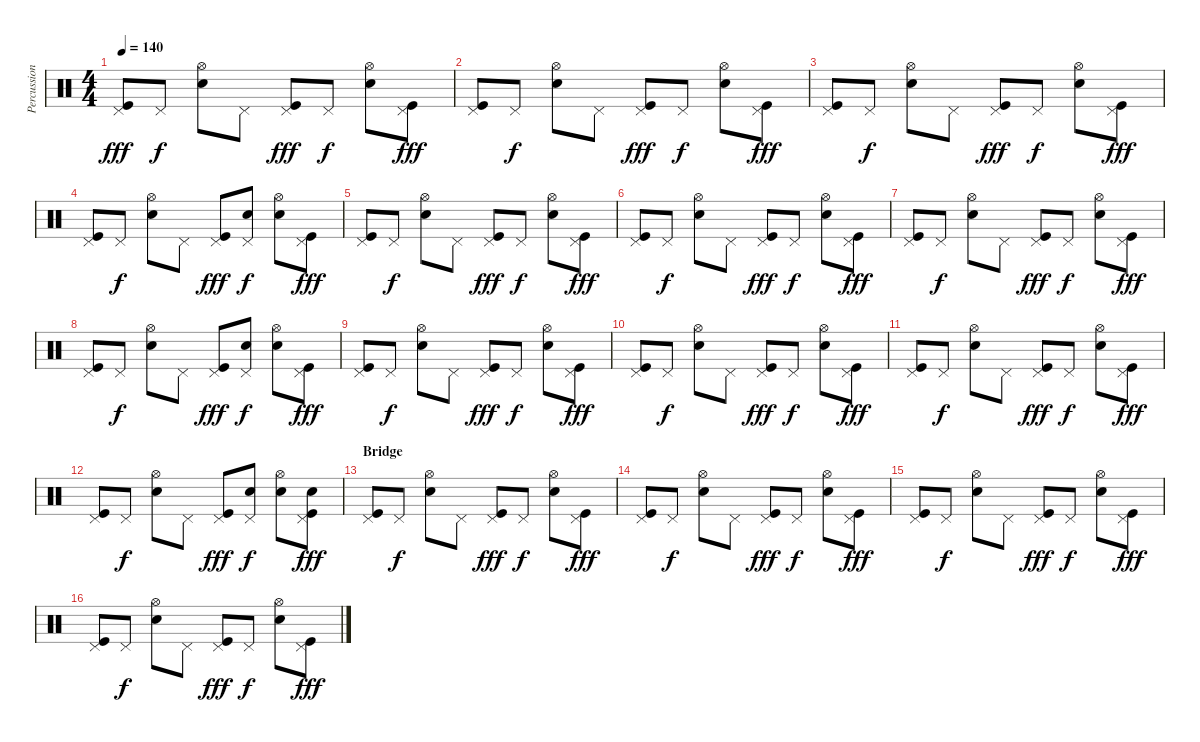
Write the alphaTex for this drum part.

\track ("Percussion" "Percussion") {instrument percussion}
\staff {score}
\articulation defaults
\ts (4 4)
\tempo 140
\clef neutral
\ks c
("Kick (hit)" "Pedal Hi-Hat (hit)").8{dy fff} "Pedal Hi-Hat (hit)".8{dy f} ("Metronome (bell)" "Hi-Hat (open)").8 "Pedal Hi-Hat (hit)".8 ("Kick (hit)" "Pedal Hi-Hat (hit)").8{dy fff} "Pedal Hi-Hat (hit)".8{dy f} ("Metronome (bell)" "Hi-Hat (open)").8 ("Kick (hit)" "Pedal Hi-Hat (hit)").8{dy fff} |
("Kick (hit)" "Pedal Hi-Hat (hit)").8 "Pedal Hi-Hat (hit)".8{dy f} ("Metronome (bell)" "Hi-Hat (open)").8 "Pedal Hi-Hat (hit)".8 ("Kick (hit)" "Pedal Hi-Hat (hit)").8{dy fff} "Pedal Hi-Hat (hit)".8{dy f} ("Metronome (bell)" "Hi-Hat (open)").8 ("Kick (hit)" "Pedal Hi-Hat (hit)").8{dy fff} |
("Kick (hit)" "Pedal Hi-Hat (hit)").8 "Pedal Hi-Hat (hit)".8{dy f} ("Metronome (bell)" "Hi-Hat (open)").8 "Pedal Hi-Hat (hit)".8 ("Kick (hit)" "Pedal Hi-Hat (hit)").8{dy fff} "Pedal Hi-Hat (hit)".8{dy f} ("Metronome (bell)" "Hi-Hat (open)").8 ("Kick (hit)" "Pedal Hi-Hat (hit)").8{dy fff} |
("Kick (hit)" "Pedal Hi-Hat (hit)").8 "Pedal Hi-Hat (hit)".8{dy f} ("Metronome (bell)" "Hi-Hat (open)").8 "Pedal Hi-Hat (hit)".8 ("Kick (hit)" "Pedal Hi-Hat (hit)").8{dy fff} ("Metronome (bell)" "Pedal Hi-Hat (hit)").8{dy f} ("Metronome (bell)" "Hi-Hat (open)").8 ("Kick (hit)" "Pedal Hi-Hat (hit)").8{dy fff} |
("Kick (hit)" "Pedal Hi-Hat (hit)").8 "Pedal Hi-Hat (hit)".8{dy f} ("Metronome (bell)" "Hi-Hat (open)").8 "Pedal Hi-Hat (hit)".8 ("Kick (hit)" "Pedal Hi-Hat (hit)").8{dy fff} "Pedal Hi-Hat (hit)".8{dy f} ("Metronome (bell)" "Hi-Hat (open)").8 ("Kick (hit)" "Pedal Hi-Hat (hit)").8{dy fff} |
("Kick (hit)" "Pedal Hi-Hat (hit)").8 "Pedal Hi-Hat (hit)".8{dy f} ("Metronome (bell)" "Hi-Hat (open)").8 "Pedal Hi-Hat (hit)".8 ("Kick (hit)" "Pedal Hi-Hat (hit)").8{dy fff} "Pedal Hi-Hat (hit)".8{dy f} ("Metronome (bell)" "Hi-Hat (open)").8 ("Kick (hit)" "Pedal Hi-Hat (hit)").8{dy fff} |
("Kick (hit)" "Pedal Hi-Hat (hit)").8 "Pedal Hi-Hat (hit)".8{dy f} ("Metronome (bell)" "Hi-Hat (open)").8 "Pedal Hi-Hat (hit)".8 ("Kick (hit)" "Pedal Hi-Hat (hit)").8{dy fff} "Pedal Hi-Hat (hit)".8{dy f} ("Metronome (bell)" "Hi-Hat (open)").8 ("Kick (hit)" "Pedal Hi-Hat (hit)").8{dy fff} |
("Kick (hit)" "Pedal Hi-Hat (hit)").8 "Pedal Hi-Hat (hit)".8{dy f} ("Metronome (bell)" "Hi-Hat (open)").8 "Pedal Hi-Hat (hit)".8 ("Kick (hit)" "Pedal Hi-Hat (hit)").8{dy fff} ("Metronome (bell)" "Pedal Hi-Hat (hit)").8{dy f} ("Metronome (bell)" "Hi-Hat (open)").8 ("Kick (hit)" "Pedal Hi-Hat (hit)").8{dy fff} |
("Kick (hit)" "Pedal Hi-Hat (hit)").8 "Pedal Hi-Hat (hit)".8{dy f} ("Metronome (bell)" "Hi-Hat (open)").8 "Pedal Hi-Hat (hit)".8 ("Kick (hit)" "Pedal Hi-Hat (hit)").8{dy fff} "Pedal Hi-Hat (hit)".8{dy f} ("Metronome (bell)" "Hi-Hat (open)").8 ("Kick (hit)" "Pedal Hi-Hat (hit)").8{dy fff} |
("Kick (hit)" "Pedal Hi-Hat (hit)").8 "Pedal Hi-Hat (hit)".8{dy f} ("Metronome (bell)" "Hi-Hat (open)").8 "Pedal Hi-Hat (hit)".8 ("Kick (hit)" "Pedal Hi-Hat (hit)").8{dy fff} "Pedal Hi-Hat (hit)".8{dy f} ("Metronome (bell)" "Hi-Hat (open)").8 ("Kick (hit)" "Pedal Hi-Hat (hit)").8{dy fff} |
("Kick (hit)" "Pedal Hi-Hat (hit)").8 "Pedal Hi-Hat (hit)".8{dy f} ("Metronome (bell)" "Hi-Hat (open)").8 "Pedal Hi-Hat (hit)".8 ("Kick (hit)" "Pedal Hi-Hat (hit)").8{dy fff} "Pedal Hi-Hat (hit)".8{dy f} ("Metronome (bell)" "Hi-Hat (open)").8 ("Kick (hit)" "Pedal Hi-Hat (hit)").8{dy fff} |
("Kick (hit)" "Pedal Hi-Hat (hit)").8 "Pedal Hi-Hat (hit)".8{dy f} ("Metronome (bell)" "Hi-Hat (open)").8 "Pedal Hi-Hat (hit)".8 ("Kick (hit)" "Pedal Hi-Hat (hit)").8{dy fff} ("Metronome (bell)" "Pedal Hi-Hat (hit)").8{dy f} ("Metronome (bell)" "Hi-Hat (open)").8 ("Kick (hit)" "Metronome (bell)" "Pedal Hi-Hat (hit)").8{dy fff} |
\section ("" "Bridge")
("Kick (hit)" "Pedal Hi-Hat (hit)").8 "Pedal Hi-Hat (hit)".8{dy f} ("Metronome (bell)" "Hi-Hat (open)").8 "Pedal Hi-Hat (hit)".8 ("Kick (hit)" "Pedal Hi-Hat (hit)").8{dy fff} "Pedal Hi-Hat (hit)".8{dy f} ("Metronome (bell)" "Hi-Hat (open)").8 ("Kick (hit)" "Pedal Hi-Hat (hit)").8{dy fff} |
("Kick (hit)" "Pedal Hi-Hat (hit)").8 "Pedal Hi-Hat (hit)".8{dy f} ("Metronome (bell)" "Hi-Hat (open)").8 "Pedal Hi-Hat (hit)".8 ("Kick (hit)" "Pedal Hi-Hat (hit)").8{dy fff} "Pedal Hi-Hat (hit)".8{dy f} ("Metronome (bell)" "Hi-Hat (open)").8 ("Kick (hit)" "Pedal Hi-Hat (hit)").8{dy fff} |
("Kick (hit)" "Pedal Hi-Hat (hit)").8 "Pedal Hi-Hat (hit)".8{dy f} ("Metronome (bell)" "Hi-Hat (open)").8 "Pedal Hi-Hat (hit)".8 ("Kick (hit)" "Pedal Hi-Hat (hit)").8{dy fff} "Pedal Hi-Hat (hit)".8{dy f} ("Metronome (bell)" "Hi-Hat (open)").8 ("Kick (hit)" "Pedal Hi-Hat (hit)").8{dy fff} |
("Kick (hit)" "Pedal Hi-Hat (hit)").8 "Pedal Hi-Hat (hit)".8{dy f} ("Metronome (bell)" "Hi-Hat (open)").8 "Pedal Hi-Hat (hit)".8 ("Kick (hit)" "Pedal Hi-Hat (hit)").8{dy fff} "Pedal Hi-Hat (hit)".8{dy f} ("Metronome (bell)" "Hi-Hat (open)").8 ("Kick (hit)" "Pedal Hi-Hat (hit)").8{dy fff}
